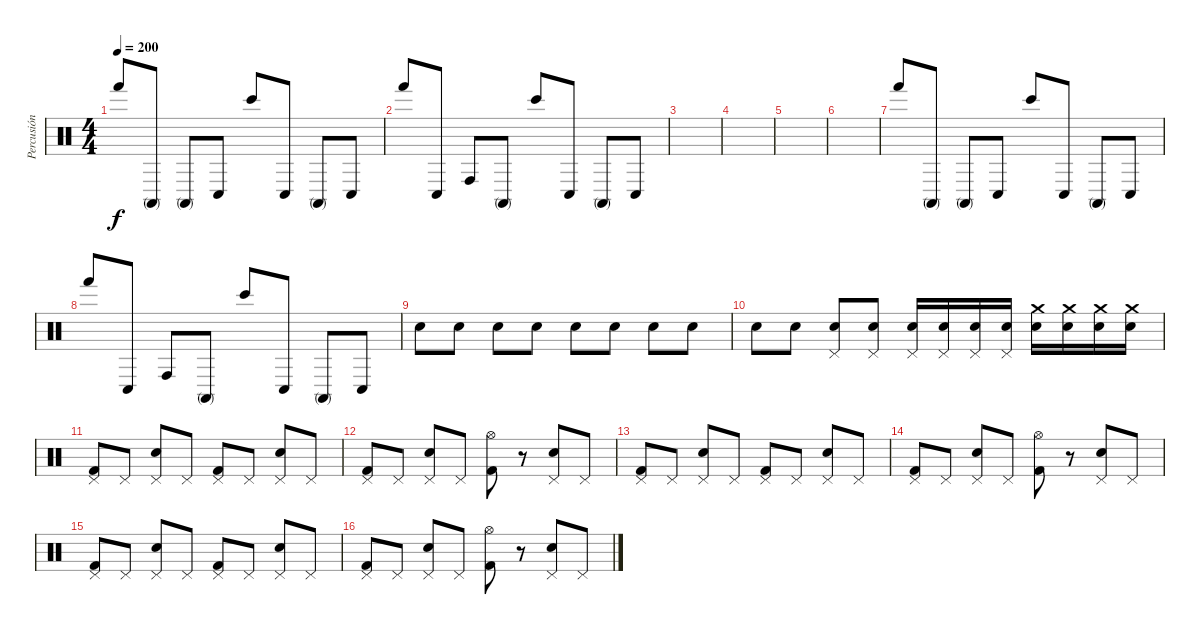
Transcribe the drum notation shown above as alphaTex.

\track ("Percusión" "Percusión") {instrument percussion}
\staff {score}
\articulation defaults
\ts (4 4)
\tempo 200
\clef neutral
\ks c "Hand (hit)".8{dy f} "Conga high (mute)".8 "Conga high (mute)".8 "Conga low (hit)".8 "Bongo High (hit)".8 "Conga low (hit)".8 "Conga high (mute)".8 "Conga low (hit)".8
|
"Hand (hit)".8 "Conga low (hit)".8 "Conga high (hit)".8 "Conga high (mute)".8 "Bongo High (hit)".8 "Conga low (hit)".8 "Conga high (mute)".8 "Conga low (hit)".8 |
|
|
|
|
"Hand (hit)".8 "Conga high (mute)".8 "Conga high (mute)".8 "Conga low (hit)".8 "Bongo High (hit)".8 "Conga low (hit)".8 "Conga high (mute)".8 "Conga low (hit)".8 |
"Hand (hit)".8 "Conga low (hit)".8 "Conga high (hit)".8 "Conga high (mute)".8 "Bongo High (hit)".8 "Conga low (hit)".8 "Conga high (mute)".8 "Conga low (hit)".8 |
"Electric Snare (hit)".8 "Electric Snare (hit)".8 "Electric Snare (hit)".8 "Electric Snare (hit)".8 "Electric Snare (hit)".8 "Electric Snare (hit)".8 "Electric Snare (hit)".8 "Electric Snare (hit)".8 |
"Electric Snare (hit)".8 "Electric Snare (hit)".8 ("Electric Snare (hit)" "Pedal Hi-Hat (hit)").8 ("Electric Snare (hit)" "Pedal Hi-Hat (hit)").8 ("Electric Snare (hit)" "Pedal Hi-Hat (hit)").16 ("Electric Snare (hit)" "Pedal Hi-Hat (hit)").16 ("Electric Snare (hit)" "Pedal Hi-Hat (hit)").16 ("Electric Snare (hit)" "Pedal Hi-Hat (hit)").16 ("Electric Snare (hit)" "Crash medium (hit)").16 ("Electric Snare (hit)" "Crash medium (hit)").16 ("Electric Snare (hit)" "Crash medium (hit)").16 ("Electric Snare (hit)" "Crash medium (hit)").16 |
("Kick (hit) 2" "Pedal Hi-Hat (hit)").8 "Pedal Hi-Hat (hit)".8 ("Electric Snare (hit)" "Pedal Hi-Hat (hit)").8 "Pedal Hi-Hat (hit)".8 ("Kick (hit) 2" "Pedal Hi-Hat (hit)").8 "Pedal Hi-Hat (hit)".8 ("Electric Snare (hit)" "Pedal Hi-Hat (hit)").8 "Pedal Hi-Hat (hit)".8 |
("Kick (hit) 2" "Pedal Hi-Hat (hit)").8 "Pedal Hi-Hat (hit)".8 ("Electric Snare (hit)" "Pedal Hi-Hat (hit)").8 "Pedal Hi-Hat (hit)".8 ("Kick (hit) 2" "Hi-Hat (open)").8 r.8 ("Electric Snare (hit)" "Pedal Hi-Hat (hit)").8 "Pedal Hi-Hat (hit)".8 |
("Kick (hit) 2" "Pedal Hi-Hat (hit)").8 "Pedal Hi-Hat (hit)".8 ("Electric Snare (hit)" "Pedal Hi-Hat (hit)").8 "Pedal Hi-Hat (hit)".8 ("Kick (hit) 2" "Pedal Hi-Hat (hit)").8 "Pedal Hi-Hat (hit)".8 ("Electric Snare (hit)" "Pedal Hi-Hat (hit)").8 "Pedal Hi-Hat (hit)".8 |
("Kick (hit) 2" "Pedal Hi-Hat (hit)").8 "Pedal Hi-Hat (hit)".8 ("Electric Snare (hit)" "Pedal Hi-Hat (hit)").8 "Pedal Hi-Hat (hit)".8 ("Kick (hit) 2" "Hi-Hat (open)").8 r.8 ("Electric Snare (hit)" "Pedal Hi-Hat (hit)").8 "Pedal Hi-Hat (hit)".8 |
("Kick (hit) 2" "Pedal Hi-Hat (hit)").8 "Pedal Hi-Hat (hit)".8 ("Electric Snare (hit)" "Pedal Hi-Hat (hit)").8 "Pedal Hi-Hat (hit)".8 ("Kick (hit) 2" "Pedal Hi-Hat (hit)").8 "Pedal Hi-Hat (hit)".8 ("Electric Snare (hit)" "Pedal Hi-Hat (hit)").8 "Pedal Hi-Hat (hit)".8 |
("Kick (hit) 2" "Pedal Hi-Hat (hit)").8 "Pedal Hi-Hat (hit)".8 ("Electric Snare (hit)" "Pedal Hi-Hat (hit)").8 "Pedal Hi-Hat (hit)".8 ("Kick (hit) 2" "Hi-Hat (open)").8 r.8 ("Electric Snare (hit)" "Pedal Hi-Hat (hit)").8 "Pedal Hi-Hat (hit)".8
